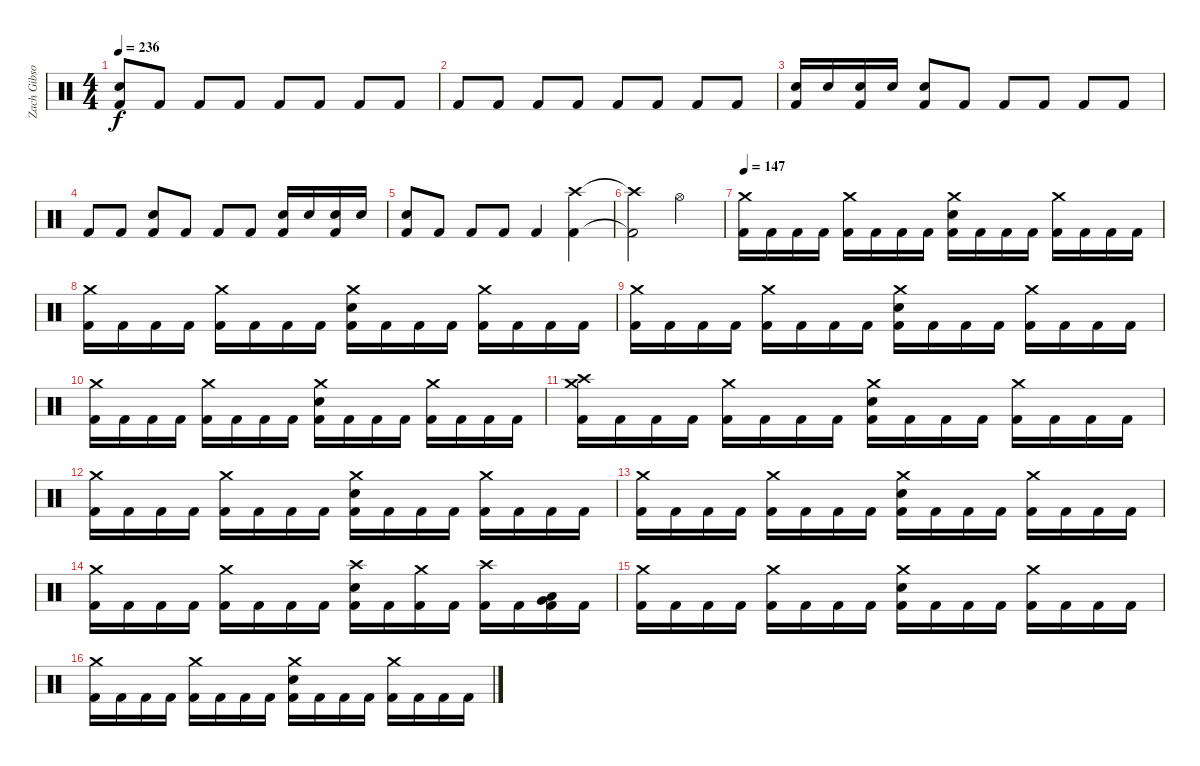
\track ("Zach Gibson (Drums)" "Zach Gibso") {instrument percussion}
\staff {score}
\articulation defaults
\ts (4 4)
\tempo 236
\clef neutral
\ks c
("Snare (hit) 2" "Kick (hit) 2").8{dy f} "Kick (hit) 2".8 "Kick (hit) 2".8 "Kick (hit) 2".8 "Kick (hit) 2".8 "Kick (hit) 2".8 "Kick (hit) 2".8 "Kick (hit) 2".8 |
"Kick (hit) 2".8 "Kick (hit) 2".8 "Kick (hit) 2".8 "Kick (hit) 2".8 "Kick (hit) 2".8 "Kick (hit) 2".8 "Kick (hit) 2".8 "Kick (hit) 2".8 |
("Snare (hit) 2" "Kick (hit) 2").16 "Snare (hit) 2".16 ("Snare (hit) 2" "Kick (hit) 2").16 "Snare (hit) 2".16 ("Snare (hit) 2" "Kick (hit) 2").8 "Kick (hit) 2".8 "Kick (hit) 2".8 "Kick (hit) 2".8 "Kick (hit) 2".8 "Kick (hit) 2".8 |
"Kick (hit) 2".8 "Kick (hit) 2".8 ("Snare (hit) 2" "Kick (hit) 2").8 "Kick (hit) 2".8 "Kick (hit) 2".8 "Kick (hit) 2".8 ("Snare (hit) 2" "Kick (hit) 2").16 "Snare (hit) 2".16 ("Snare (hit) 2" "Kick (hit) 2").16 "Snare (hit) 2".16 |
("Snare (hit) 2" "Kick (hit) 2").8 "Kick (hit) 2".8 "Kick (hit) 2".8 "Kick (hit) 2".8 "Kick (hit) 2".4 ("Crash high (hit)" "Kick (hit) 2").4 |
("Crash high (hit)"{t} "Kick (hit) 2"{t}).2 "Hi-Hat (open)".2 |
\tempo 147
("Crash medium (hit)" "Kick (hit) 2").16 "Kick (hit) 2".16 "Kick (hit) 2".16 "Kick (hit) 2".16 ("Crash medium (hit)" "Kick (hit) 2").16 "Kick (hit) 2".16 "Kick (hit) 2".16 "Kick (hit) 2".16 ("Crash medium (hit)" "Snare (hit) 2" "Kick (hit) 2").16 "Kick (hit) 2".16 "Kick (hit) 2".16 "Kick (hit) 2".16 ("Crash medium (hit)" "Kick (hit) 2").16 "Kick (hit) 2".16 "Kick (hit) 2".16 "Kick (hit) 2".16 |
("Crash medium (hit)" "Kick (hit) 2").16 "Kick (hit) 2".16 "Kick (hit) 2".16 "Kick (hit) 2".16 ("Crash medium (hit)" "Kick (hit) 2").16 "Kick (hit) 2".16 "Kick (hit) 2".16 "Kick (hit) 2".16 ("Crash medium (hit)" "Snare (hit) 2" "Kick (hit) 2").16 "Kick (hit) 2".16 "Kick (hit) 2".16 "Kick (hit) 2".16 ("Crash medium (hit)" "Kick (hit) 2").16 "Kick (hit) 2".16 "Kick (hit) 2".16 "Kick (hit) 2".16 |
("Crash medium (hit)" "Kick (hit) 2").16 "Kick (hit) 2".16 "Kick (hit) 2".16 "Kick (hit) 2".16 ("Crash medium (hit)" "Kick (hit) 2").16 "Kick (hit) 2".16 "Kick (hit) 2".16 "Kick (hit) 2".16 ("Crash medium (hit)" "Snare (hit) 2" "Kick (hit) 2").16 "Kick (hit) 2".16 "Kick (hit) 2".16 "Kick (hit) 2".16 ("Crash medium (hit)" "Kick (hit) 2").16 "Kick (hit) 2".16 "Kick (hit) 2".16 "Kick (hit) 2".16 |
("Crash medium (hit)" "Kick (hit) 2").16 "Kick (hit) 2".16 "Kick (hit) 2".16 "Kick (hit) 2".16 ("Crash medium (hit)" "Kick (hit) 2").16 "Kick (hit) 2".16 "Kick (hit) 2".16 "Kick (hit) 2".16 ("Crash medium (hit)" "Snare (hit) 2" "Kick (hit) 2").16 "Kick (hit) 2".16 "Kick (hit) 2".16 "Kick (hit) 2".16 ("Crash medium (hit)" "Kick (hit) 2").16 "Kick (hit) 2".16 "Kick (hit) 2".16 "Kick (hit) 2".16 |
("Crash high (hit)" "Crash medium (hit)" "Kick (hit) 2").16 "Kick (hit) 2".16 "Kick (hit) 2".16 "Kick (hit) 2".16 ("Crash medium (hit)" "Kick (hit) 2").16 "Kick (hit) 2".16 "Kick (hit) 2".16 "Kick (hit) 2".16 ("Crash medium (hit)" "Snare (hit) 2" "Kick (hit) 2").16 "Kick (hit) 2".16 "Kick (hit) 2".16 "Kick (hit) 2".16 ("Crash medium (hit)" "Kick (hit) 2").16 "Kick (hit) 2".16 "Kick (hit) 2".16 "Kick (hit) 2".16 |
("Crash medium (hit)" "Kick (hit) 2").16 "Kick (hit) 2".16 "Kick (hit) 2".16 "Kick (hit) 2".16 ("Crash medium (hit)" "Kick (hit) 2").16 "Kick (hit) 2".16 "Kick (hit) 2".16 "Kick (hit) 2".16 ("Crash medium (hit)" "Snare (hit) 2" "Kick (hit) 2").16 "Kick (hit) 2".16 "Kick (hit) 2".16 "Kick (hit) 2".16 ("Crash medium (hit)" "Kick (hit) 2").16 "Kick (hit) 2".16 "Kick (hit) 2".16 "Kick (hit) 2".16 |
("Crash medium (hit)" "Kick (hit) 2").16 "Kick (hit) 2".16 "Kick (hit) 2".16 "Kick (hit) 2".16 ("Crash medium (hit)" "Kick (hit) 2").16 "Kick (hit) 2".16 "Kick (hit) 2".16 "Kick (hit) 2".16 ("Crash medium (hit)" "Snare (hit) 2" "Kick (hit) 2").16 "Kick (hit) 2".16 "Kick (hit) 2".16 "Kick (hit) 2".16 ("Crash medium (hit)" "Kick (hit) 2").16 "Kick (hit) 2".16 "Kick (hit) 2".16 "Kick (hit) 2".16 |
("Crash medium (hit)" "Kick (hit) 2").16 "Kick (hit) 2".16 "Kick (hit) 2".16 "Kick (hit) 2".16 ("Crash medium (hit)" "Kick (hit) 2").16 "Kick (hit) 2".16 "Kick (hit) 2".16 "Kick (hit) 2".16 ("Crash high (hit)" "Snare (hit) 2" "Kick (hit) 2").16 "Kick (hit) 2".16 ("Crash medium (hit)" "Kick (hit) 2").16 "Kick (hit) 2".16 ("Crash high (hit)" "Kick (hit) 2").16 "Kick (hit) 2".16 ("Very Low Tom (hit)" "Low Floor Tom (hit)" "Kick (hit) 2").16 "Kick (hit) 2".16 |
("Crash medium (hit)" "Kick (hit) 2").16 "Kick (hit) 2".16 "Kick (hit) 2".16 "Kick (hit) 2".16 ("Crash medium (hit)" "Kick (hit) 2").16 "Kick (hit) 2".16 "Kick (hit) 2".16 "Kick (hit) 2".16 ("Crash medium (hit)" "Snare (hit) 2" "Kick (hit) 2").16 "Kick (hit) 2".16 "Kick (hit) 2".16 "Kick (hit) 2".16 ("Crash medium (hit)" "Kick (hit) 2").16 "Kick (hit) 2".16 "Kick (hit) 2".16 "Kick (hit) 2".16 |
("Crash medium (hit)" "Kick (hit) 2").16 "Kick (hit) 2".16 "Kick (hit) 2".16 "Kick (hit) 2".16 ("Crash medium (hit)" "Kick (hit) 2").16 "Kick (hit) 2".16 "Kick (hit) 2".16 "Kick (hit) 2".16 ("Crash medium (hit)" "Snare (hit) 2" "Kick (hit) 2").16 "Kick (hit) 2".16 "Kick (hit) 2".16 "Kick (hit) 2".16 ("Crash medium (hit)" "Kick (hit) 2").16 "Kick (hit) 2".16 "Kick (hit) 2".16 "Kick (hit) 2".16
